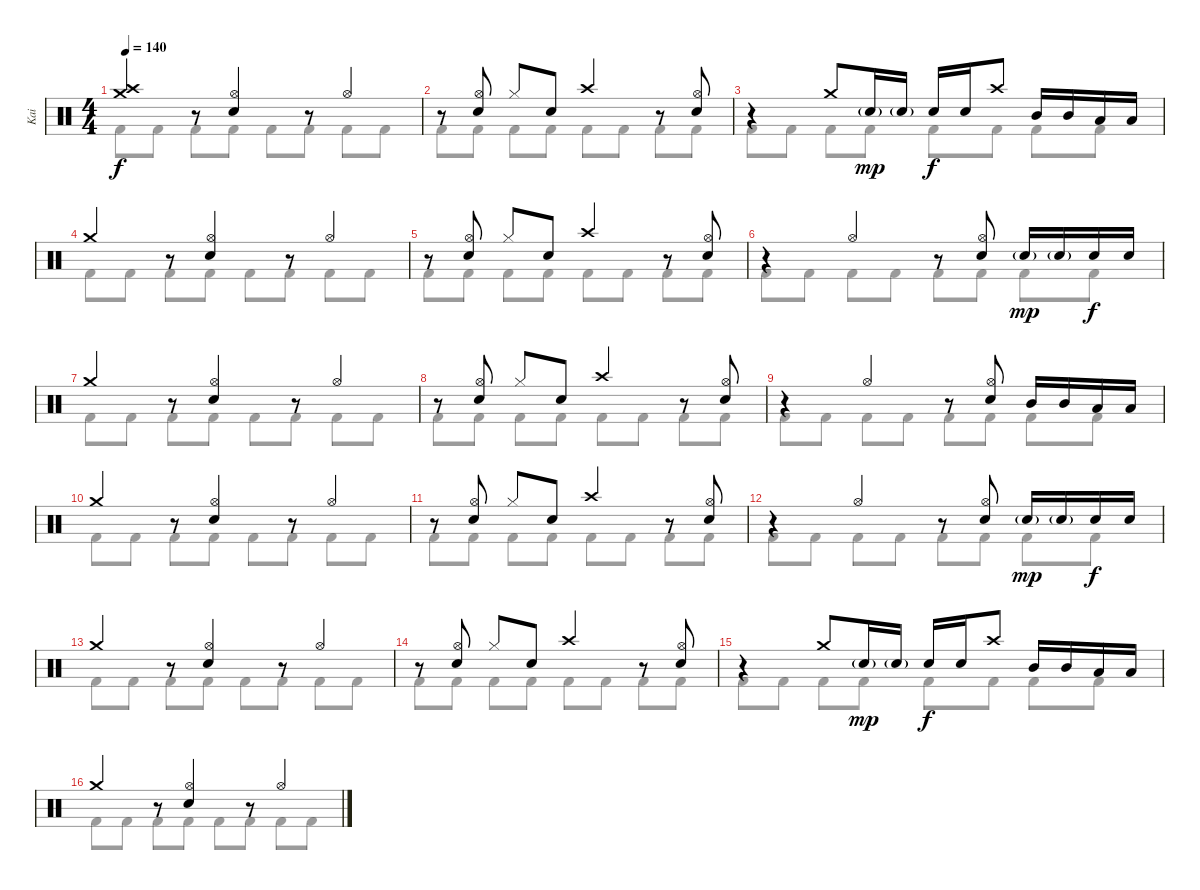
\track ("Kai" "Kai") {instrument percussion}
\staff {score}
\articulation defaults
\voice
\ts (4 4)
\tempo 140
\clef neutral
\ks c
("Crash medium (hit)" "Crash high (hit)").4{dy f} r.8 ("Hi-Hat (open)" "Snare (hit) 2").4 r.8 "Hi-Hat (open)".4 |
r.8 ("Hi-Hat (open)" "Snare (hit) 2").8 "Hi-Hat (closed)".8 "Snare (hit) 2".8 "Crash high (hit)".4 r.8 ("Hi-Hat (open)" "Snare (hit) 2").8 |
r.4 "Crash medium (hit)".8 "Snare (hit) 2"{g}.16{dy mp} "Snare (hit) 2"{g}.16 "Snare (hit) 2".16{dy f} "Snare (hit) 2".16 "Crash high (hit)".8 "Mid Tom (hit)".16 "Mid Tom (hit)".16 "Low Tom (hit)".16 "Low Tom (hit)".16 |
"Crash medium (hit)".4 r.8 ("Hi-Hat (open)" "Snare (hit) 2").4 r.8 "Hi-Hat (open)".4 |
r.8 ("Hi-Hat (open)" "Snare (hit) 2").8 "Hi-Hat (closed)".8 "Snare (hit) 2".8 "Crash high (hit)".4 r.8 ("Hi-Hat (open)" "Snare (hit) 2").8 |
r.4 "Hi-Hat (open)".4 r.8 ("Hi-Hat (open)" "Snare (hit) 2").8 "Snare (hit) 2"{g}.16{dy mp} "Snare (hit) 2"{g}.16 "Snare (hit) 2".16{dy f} "Snare (hit) 2".16 |
"Crash medium (hit)".4 r.8 ("Hi-Hat (open)" "Snare (hit) 2").4 r.8 "Hi-Hat (open)".4 |
r.8 ("Hi-Hat (open)" "Snare (hit) 2").8 "Hi-Hat (closed)".8 "Snare (hit) 2".8 "Crash high (hit)".4 r.8 ("Hi-Hat (open)" "Snare (hit) 2").8 |
r.4 "Hi-Hat (open)".4 r.8 ("Hi-Hat (open)" "Snare (hit) 2").8 "Mid Tom (hit)".16 "Mid Tom (hit)".16 "Low Tom (hit)".16 "Low Tom (hit)".16 |
"Crash medium (hit)".4 r.8 ("Hi-Hat (open)" "Snare (hit) 2").4 r.8 "Hi-Hat (open)".4 |
r.8 ("Hi-Hat (open)" "Snare (hit) 2").8 "Hi-Hat (closed)".8 "Snare (hit) 2".8 "Crash high (hit)".4 r.8 ("Hi-Hat (open)" "Snare (hit) 2").8 |
r.4 "Hi-Hat (open)".4 r.8 ("Hi-Hat (open)" "Snare (hit) 2").8 "Snare (hit) 2"{g}.16{dy mp} "Snare (hit) 2"{g}.16 "Snare (hit) 2".16{dy f} "Snare (hit) 2".16 |
"Crash medium (hit)".4 r.8 ("Hi-Hat (open)" "Snare (hit) 2").4 r.8 "Hi-Hat (open)".4 |
r.8 ("Hi-Hat (open)" "Snare (hit) 2").8 "Hi-Hat (closed)".8 "Snare (hit) 2".8 "Crash high (hit)".4 r.8 ("Hi-Hat (open)" "Snare (hit) 2").8 |
r.4 "Crash medium (hit)".8 "Snare (hit) 2"{g}.16{dy mp} "Snare (hit) 2"{g}.16 "Snare (hit) 2".16{dy f} "Snare (hit) 2".16 "Crash high (hit)".8 "Mid Tom (hit)".16 "Mid Tom (hit)".16 "Low Tom (hit)".16 "Low Tom (hit)".16 |
"Crash medium (hit)".4 r.8 ("Hi-Hat (open)" "Snare (hit) 2").4 r.8 "Hi-Hat (open)".4
\voice
\clef neutral
\ottava regular
\simile none
\ks c "Kick (hit) 2".8{dy f} "Kick (hit) 2".8 "Kick (hit) 2".8 "Kick (hit) 2".8 "Kick (hit) 2".8 "Kick (hit) 2".8 "Kick (hit) 2".8 "Kick (hit) 2".8
|
"Kick (hit) 2".8 "Kick (hit) 2".8 "Kick (hit) 2".8 "Kick (hit) 2".8 "Kick (hit) 2".8 "Kick (hit) 2".8 "Kick (hit) 2".8 "Kick (hit) 2".8 |
"Kick (hit) 2".8 "Kick (hit) 2".8 "Kick (hit) 2".8 "Kick (hit) 2".8 "Kick (hit) 2".8 "Kick (hit) 2".8 "Kick (hit) 2".8 "Kick (hit) 2".8 |
"Kick (hit) 2".8 "Kick (hit) 2".8 "Kick (hit) 2".8 "Kick (hit) 2".8 "Kick (hit) 2".8 "Kick (hit) 2".8 "Kick (hit) 2".8 "Kick (hit) 2".8 |
"Kick (hit) 2".8 "Kick (hit) 2".8 "Kick (hit) 2".8 "Kick (hit) 2".8 "Kick (hit) 2".8 "Kick (hit) 2".8 "Kick (hit) 2".8 "Kick (hit) 2".8 |
"Kick (hit) 2".8 "Kick (hit) 2".8 "Kick (hit) 2".8 "Kick (hit) 2".8 "Kick (hit) 2".8 "Kick (hit) 2".8 "Kick (hit) 2".8 "Kick (hit) 2".8 |
"Kick (hit) 2".8 "Kick (hit) 2".8 "Kick (hit) 2".8 "Kick (hit) 2".8 "Kick (hit) 2".8 "Kick (hit) 2".8 "Kick (hit) 2".8 "Kick (hit) 2".8 |
"Kick (hit) 2".8 "Kick (hit) 2".8 "Kick (hit) 2".8 "Kick (hit) 2".8 "Kick (hit) 2".8 "Kick (hit) 2".8 "Kick (hit) 2".8 "Kick (hit) 2".8 |
"Kick (hit) 2".8 "Kick (hit) 2".8 "Kick (hit) 2".8 "Kick (hit) 2".8 "Kick (hit) 2".8 "Kick (hit) 2".8 "Kick (hit) 2".8 "Kick (hit) 2".8 |
"Kick (hit) 2".8 "Kick (hit) 2".8 "Kick (hit) 2".8 "Kick (hit) 2".8 "Kick (hit) 2".8 "Kick (hit) 2".8 "Kick (hit) 2".8 "Kick (hit) 2".8 |
"Kick (hit) 2".8 "Kick (hit) 2".8 "Kick (hit) 2".8 "Kick (hit) 2".8 "Kick (hit) 2".8 "Kick (hit) 2".8 "Kick (hit) 2".8 "Kick (hit) 2".8 |
"Kick (hit) 2".8 "Kick (hit) 2".8 "Kick (hit) 2".8 "Kick (hit) 2".8 "Kick (hit) 2".8 "Kick (hit) 2".8 "Kick (hit) 2".8 "Kick (hit) 2".8 |
"Kick (hit) 2".8 "Kick (hit) 2".8 "Kick (hit) 2".8 "Kick (hit) 2".8 "Kick (hit) 2".8 "Kick (hit) 2".8 "Kick (hit) 2".8 "Kick (hit) 2".8 |
"Kick (hit) 2".8 "Kick (hit) 2".8 "Kick (hit) 2".8 "Kick (hit) 2".8 "Kick (hit) 2".8 "Kick (hit) 2".8 "Kick (hit) 2".8 "Kick (hit) 2".8 |
"Kick (hit) 2".8 "Kick (hit) 2".8 "Kick (hit) 2".8 "Kick (hit) 2".8 "Kick (hit) 2".8 "Kick (hit) 2".8 "Kick (hit) 2".8 "Kick (hit) 2".8 |
"Kick (hit) 2".8 "Kick (hit) 2".8 "Kick (hit) 2".8 "Kick (hit) 2".8 "Kick (hit) 2".8 "Kick (hit) 2".8 "Kick (hit) 2".8 "Kick (hit) 2".8
